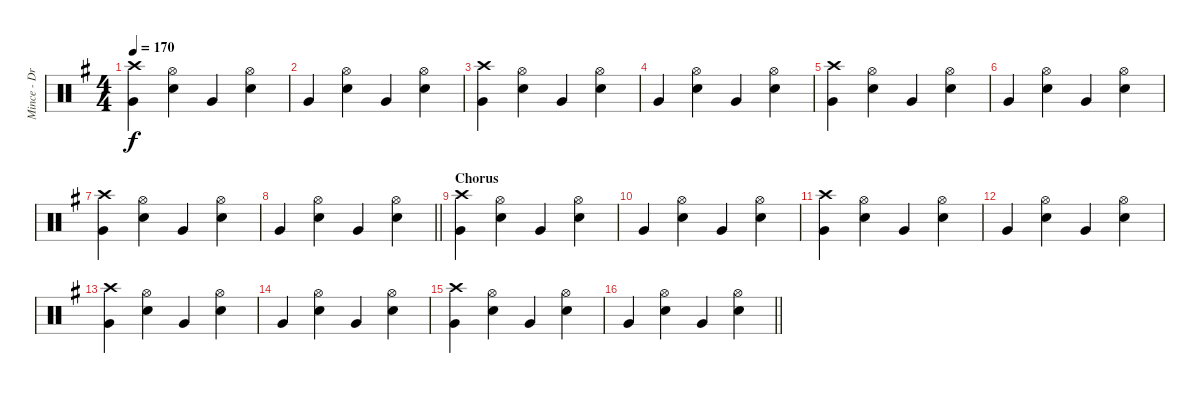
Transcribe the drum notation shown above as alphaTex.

\track ("Mince - Drums" "Mince - Dr") {instrument percussion}
\staff {score}
\articulation defaults
\ts (4 4)
\tempo 170
\clef neutral
\ks g
("Crash high (hit)" "Very Low Tom (hit)").4{dy f} ("Snare (hit) 2" "Hi-Hat (open)").4 "Very Low Tom (hit)".4 ("Snare (hit) 2" "Hi-Hat (open)").4 |
"Very Low Tom (hit)".4 ("Snare (hit) 2" "Hi-Hat (open)").4 "Very Low Tom (hit)".4 ("Snare (hit) 2" "Hi-Hat (open)").4 |
("Crash high (hit)" "Very Low Tom (hit)").4 ("Snare (hit) 2" "Hi-Hat (open)").4 "Very Low Tom (hit)".4 ("Snare (hit) 2" "Hi-Hat (open)").4 |
"Very Low Tom (hit)".4 ("Snare (hit) 2" "Hi-Hat (open)").4 "Very Low Tom (hit)".4 ("Snare (hit) 2" "Hi-Hat (open)").4 |
("Crash high (hit)" "Very Low Tom (hit)").4 ("Snare (hit) 2" "Hi-Hat (open)").4 "Very Low Tom (hit)".4 ("Snare (hit) 2" "Hi-Hat (open)").4 |
"Very Low Tom (hit)".4 ("Snare (hit) 2" "Hi-Hat (open)").4 "Very Low Tom (hit)".4 ("Snare (hit) 2" "Hi-Hat (open)").4 |
("Crash high (hit)" "Very Low Tom (hit)").4 ("Snare (hit) 2" "Hi-Hat (open)").4 "Very Low Tom (hit)".4 ("Snare (hit) 2" "Hi-Hat (open)").4 |
\barLineRight lightlight "Very Low Tom (hit)".4
("Snare (hit) 2" "Hi-Hat (open)").4 "Very Low Tom (hit)".4 ("Snare (hit) 2" "Hi-Hat (open)").4 |
\section ("" "Chorus")
("Crash high (hit)" "Very Low Tom (hit)").4 ("Snare (hit) 2" "Hi-Hat (open)").4 "Very Low Tom (hit)".4 ("Snare (hit) 2" "Hi-Hat (open)").4 |
"Very Low Tom (hit)".4 ("Snare (hit) 2" "Hi-Hat (open)").4 "Very Low Tom (hit)".4 ("Snare (hit) 2" "Hi-Hat (open)").4 |
("Crash high (hit)" "Very Low Tom (hit)").4 ("Snare (hit) 2" "Hi-Hat (open)").4 "Very Low Tom (hit)".4 ("Snare (hit) 2" "Hi-Hat (open)").4 |
"Very Low Tom (hit)".4 ("Snare (hit) 2" "Hi-Hat (open)").4 "Very Low Tom (hit)".4 ("Snare (hit) 2" "Hi-Hat (open)").4 |
("Crash high (hit)" "Very Low Tom (hit)").4 ("Snare (hit) 2" "Hi-Hat (open)").4 "Very Low Tom (hit)".4 ("Snare (hit) 2" "Hi-Hat (open)").4 |
"Very Low Tom (hit)".4 ("Snare (hit) 2" "Hi-Hat (open)").4 "Very Low Tom (hit)".4 ("Snare (hit) 2" "Hi-Hat (open)").4 |
("Crash high (hit)" "Very Low Tom (hit)").4 ("Snare (hit) 2" "Hi-Hat (open)").4 "Very Low Tom (hit)".4 ("Snare (hit) 2" "Hi-Hat (open)").4 |
\barLineRight lightlight "Very Low Tom (hit)".4
("Snare (hit) 2" "Hi-Hat (open)").4 "Very Low Tom (hit)".4 ("Snare (hit) 2" "Hi-Hat (open)").4
